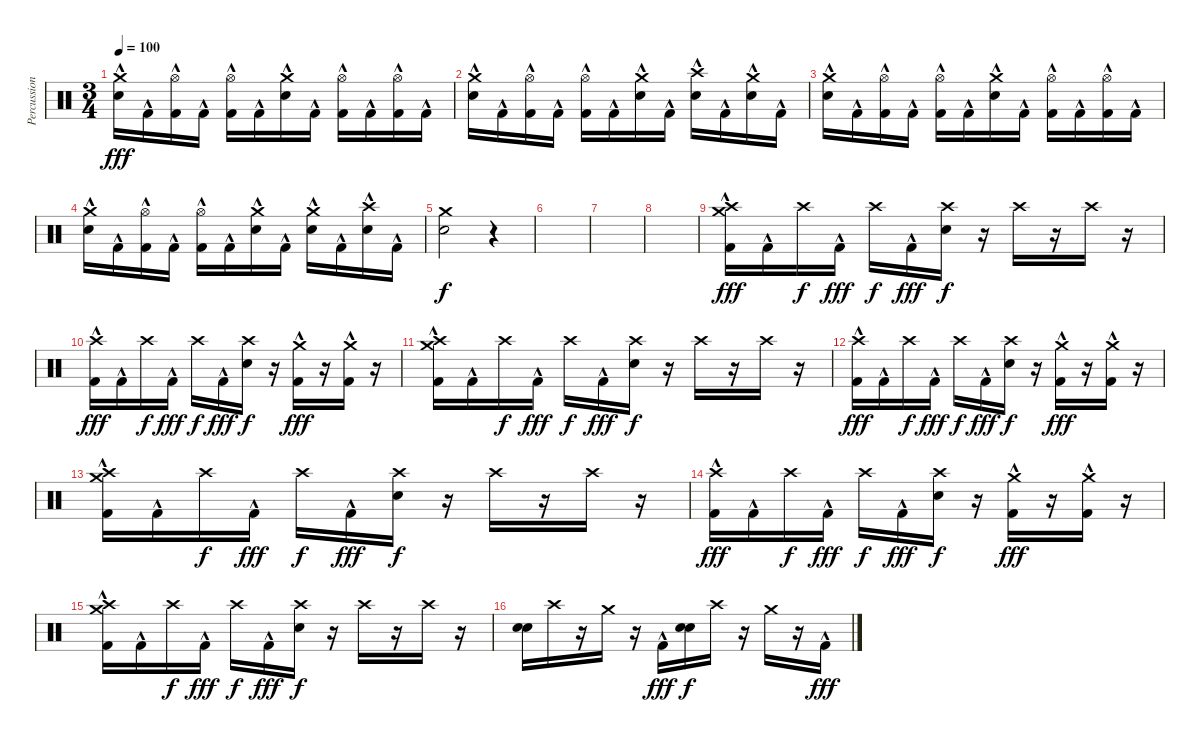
\track ("Percussion" "Percussion") {instrument percussion}
\staff {score}
\articulation defaults
\ts (3 4)
\tempo 100
\clef neutral
\ks c
("Electric Snare (hit)"{hac} "Crash medium (hit)").16{dy fff} "Kick (hit) 2"{hac}.16 ("Kick (hit) 2"{hac} "Hi-Hat (open)").16 "Kick (hit) 2"{hac}.16 ("Kick (hit) 2"{hac} "Hi-Hat (open)").16 "Kick (hit) 2"{hac}.16 ("Electric Snare (hit)"{hac} "Crash medium (hit)").16 "Kick (hit) 2"{hac}.16 ("Kick (hit) 2"{hac} "Hi-Hat (open)").16 "Kick (hit) 2"{hac}.16 ("Kick (hit) 2"{hac} "Hi-Hat (open)").16 "Kick (hit) 2"{hac}.16 |
("Electric Snare (hit)"{hac} "Crash medium (hit)").16 "Kick (hit) 2"{hac}.16 ("Kick (hit) 2"{hac} "Hi-Hat (open)").16 "Kick (hit) 2"{hac}.16 ("Kick (hit) 2"{hac} "Hi-Hat (open)").16 "Kick (hit) 2"{hac}.16 ("Electric Snare (hit)"{hac} "Crash medium (hit)").16 "Kick (hit) 2"{hac}.16 ("Electric Snare (hit)"{hac} "Crash high (hit)").16 "Kick (hit) 2"{hac}.16 ("Electric Snare (hit)"{hac} "Crash medium (hit)").16 "Kick (hit) 2"{hac}.16 |
("Electric Snare (hit)"{hac} "Crash medium (hit)").16 "Kick (hit) 2"{hac}.16 ("Kick (hit) 2"{hac} "Hi-Hat (open)").16 "Kick (hit) 2"{hac}.16 ("Kick (hit) 2"{hac} "Hi-Hat (open)").16 "Kick (hit) 2"{hac}.16 ("Electric Snare (hit)"{hac} "Crash medium (hit)").16 "Kick (hit) 2"{hac}.16 ("Kick (hit) 2"{hac} "Hi-Hat (open)").16 "Kick (hit) 2"{hac}.16 ("Kick (hit) 2"{hac} "Hi-Hat (open)").16 "Kick (hit) 2"{hac}.16 |
("Electric Snare (hit)"{hac} "Crash medium (hit)").16 "Kick (hit) 2"{hac}.16 ("Kick (hit) 2"{hac} "Hi-Hat (open)").16 "Kick (hit) 2"{hac}.16 ("Kick (hit) 2"{hac} "Hi-Hat (open)").16 "Kick (hit) 2"{hac}.16 ("Electric Snare (hit)"{hac} "Crash medium (hit)").16 "Kick (hit) 2"{hac}.16 ("Electric Snare (hit)"{hac} "Crash medium (hit)").16 "Kick (hit) 2"{hac}.16 ("Electric Snare (hit)"{hac} "Crash high (hit)").16 "Kick (hit) 2"{hac}.16 |
("Electric Snare (hit)" "Crash medium (hit)").2{dy f} r.4 |
|
|
|
("Kick (hit) 2"{hac} "Crash high (hit)" "Crash medium (hit)").16{dy fff} "Kick (hit) 2"{hac}.16 "Crash high (hit)".16{dy f} "Kick (hit) 2"{hac}.16{dy fff} "Crash high (hit)".16{dy f} "Kick (hit) 2"{hac}.16{dy fff} ("Electric Snare (hit)" "Crash high (hit)").16{dy f} r.16 "Crash high (hit)".16 r.16 "Crash high (hit)".16 r.16 |
("Kick (hit) 2"{hac} "Crash high (hit)").16{dy fff} "Kick (hit) 2"{hac}.16 "Crash high (hit)".16{dy f} "Kick (hit) 2"{hac}.16{dy fff} "Crash high (hit)".16{dy f} "Kick (hit) 2"{hac}.16{dy fff} ("Electric Snare (hit)" "Crash high (hit)").16{dy f} r.16 ("Kick (hit) 2"{hac} "Crash medium (hit)").16{dy fff} r.16 ("Kick (hit) 2"{hac} "Crash medium (hit)").16 r.16 |
("Kick (hit) 2"{hac} "Crash high (hit)" "Crash medium (hit)").16 "Kick (hit) 2"{hac}.16 "Crash high (hit)".16{dy f} "Kick (hit) 2"{hac}.16{dy fff} "Crash high (hit)".16{dy f} "Kick (hit) 2"{hac}.16{dy fff} ("Electric Snare (hit)" "Crash high (hit)").16{dy f} r.16 "Crash high (hit)".16 r.16 "Crash high (hit)".16 r.16 |
("Kick (hit) 2"{hac} "Crash high (hit)").16{dy fff} "Kick (hit) 2"{hac}.16 "Crash high (hit)".16{dy f} "Kick (hit) 2"{hac}.16{dy fff} "Crash high (hit)".16{dy f} "Kick (hit) 2"{hac}.16{dy fff} ("Electric Snare (hit)" "Crash high (hit)").16{dy f} r.16 ("Kick (hit) 2"{hac} "Crash medium (hit)").16{dy fff} r.16 ("Kick (hit) 2"{hac} "Crash medium (hit)").16 r.16 |
("Kick (hit) 2"{hac} "Crash high (hit)" "Crash medium (hit)").16 "Kick (hit) 2"{hac}.16 "Crash high (hit)".16{dy f} "Kick (hit) 2"{hac}.16{dy fff} "Crash high (hit)".16{dy f} "Kick (hit) 2"{hac}.16{dy fff} ("Electric Snare (hit)" "Crash high (hit)").16{dy f} r.16 "Crash high (hit)".16 r.16 "Crash high (hit)".16 r.16 |
("Kick (hit) 2"{hac} "Crash high (hit)").16{dy fff} "Kick (hit) 2"{hac}.16 "Crash high (hit)".16{dy f} "Kick (hit) 2"{hac}.16{dy fff} "Crash high (hit)".16{dy f} "Kick (hit) 2"{hac}.16{dy fff} ("Electric Snare (hit)" "Crash high (hit)").16{dy f} r.16 ("Kick (hit) 2"{hac} "Crash medium (hit)").16{dy fff} r.16 ("Kick (hit) 2"{hac} "Crash medium (hit)").16 r.16 |
("Kick (hit) 2"{hac} "Crash high (hit)" "Crash medium (hit)").16 "Kick (hit) 2"{hac}.16 "Crash high (hit)".16{dy f} "Kick (hit) 2"{hac}.16{dy fff} "Crash high (hit)".16{dy f} "Kick (hit) 2"{hac}.16{dy fff} ("Electric Snare (hit)" "Crash high (hit)").16{dy f} r.16 "Crash high (hit)".16 r.16 "Crash high (hit)".16 r.16 |
("Electric Snare (hit)" "Electric Snare (hit)").16 "Crash high (hit)".16 r.16 "Crash medium (hit)".16 r.16 "Kick (hit) 2"{hac}.16{dy fff} ("Electric Snare (hit)" "Electric Snare (hit)").16{dy f} "Crash high (hit)".16 r.16 "Crash medium (hit)".16 r.16 "Kick (hit) 2"{hac}.16{dy fff}
